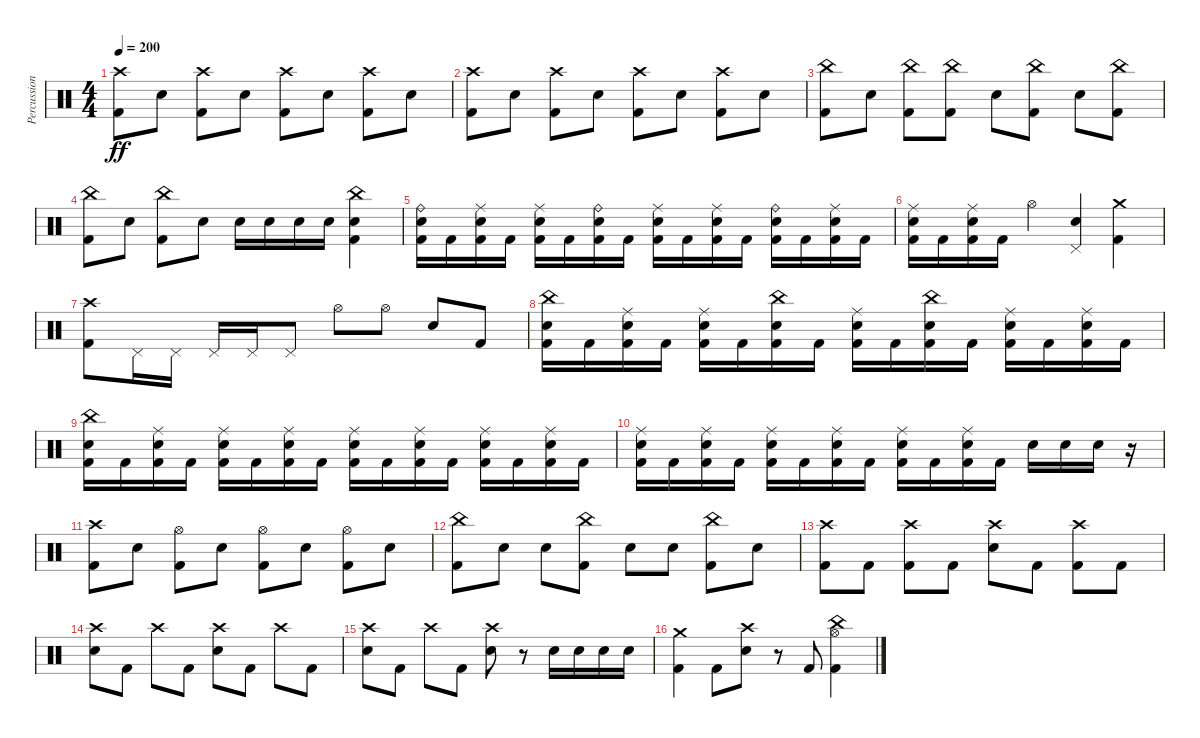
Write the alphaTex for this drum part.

\track ("Percussion" "Percussion") {instrument percussion}
\staff {score}
\articulation defaults
\ts (4 4)
\tempo 200
\clef neutral
\ks c
("Crash high (hit)" "Kick (hit) 2").8{dy ff} "Electric Snare (hit)".8 ("Crash high (hit)" "Kick (hit) 2").8 "Electric Snare (hit)".8 ("Crash high (hit)" "Kick (hit) 2").8 "Electric Snare (hit)".8 ("Crash high (hit)" "Kick (hit) 2").8 "Electric Snare (hit)".8 |
("Crash high (hit)" "Kick (hit) 2").8 "Electric Snare (hit)".8 ("Crash high (hit)" "Kick (hit) 2").8 "Electric Snare (hit)".8 ("Crash high (hit)" "Kick (hit) 2").8 "Electric Snare (hit)".8 ("Crash high (hit)" "Kick (hit) 2").8 "Electric Snare (hit)".8 |
("China (hit)" "Kick (hit) 2").8 "Electric Snare (hit)".8 ("China (hit)" "Kick (hit) 2").8 ("China (hit)" "Kick (hit) 2").8 "Electric Snare (hit)".8 ("China (hit)" "Kick (hit) 2").8 "Electric Snare (hit)".8 ("China (hit)" "Kick (hit) 2").8 |
("China (hit)" "Kick (hit) 2").8 "Electric Snare (hit)".8 ("China (hit)" "Kick (hit) 2").8 "Electric Snare (hit)".8 "Electric Snare (hit)".16 "Electric Snare (hit)".16 "Electric Snare (hit)".16 "Electric Snare (hit)".16 ("China (hit)" "Electric Snare (hit)" "Kick (hit) 2").4 |
("Ride (bell)" "Electric Snare (hit)" "Kick (hit) 2").16 "Kick (hit) 2".16 ("Ride (middle)" "Electric Snare (hit)" "Kick (hit) 2").16 "Kick (hit) 2".16 ("Ride (middle)" "Electric Snare (hit)" "Kick (hit) 2").16 "Kick (hit) 2".16 ("Ride (bell)" "Electric Snare (hit)" "Kick (hit) 2").16 "Kick (hit) 2".16 ("Ride (middle)" "Electric Snare (hit)" "Kick (hit) 2").16 "Kick (hit) 2".16 ("Ride (middle)" "Electric Snare (hit)" "Kick (hit) 2").16 "Kick (hit) 2".16 ("Ride (bell)" "Electric Snare (hit)" "Kick (hit) 2").16 "Kick (hit) 2".16 ("Ride (middle)" "Electric Snare (hit)" "Kick (hit) 2").16 "Kick (hit) 2".16 |
("Ride (middle)" "Electric Snare (hit)" "Kick (hit) 2").16 "Kick (hit) 2".16 ("Ride (middle)" "Electric Snare (hit)" "Kick (hit) 2").16 "Kick (hit) 2".16 "Hi-Hat (open)".4 ("Pedal Hi-Hat (hit)" "Electric Snare (hit)").4 ("Crash medium (hit)" "Kick (hit) 2").4 |
("Crash high (hit)" "Kick (hit) 2").8 "Pedal Hi-Hat (hit)".16 "Pedal Hi-Hat (hit)".16 "Pedal Hi-Hat (hit)".16 "Pedal Hi-Hat (hit)".16 "Pedal Hi-Hat (hit)".8 "Hi-Hat (open)".8 "Hi-Hat (open)".8 "Electric Snare (hit)".8 "Kick (hit) 2".8 |
("China (hit)" "Electric Snare (hit)" "Kick (hit) 2").16 "Kick (hit) 2".16 ("Ride (middle)" "Electric Snare (hit)" "Kick (hit) 2").16 "Kick (hit) 2".16 ("Ride (middle)" "Electric Snare (hit)" "Kick (hit) 2").16 "Kick (hit) 2".16 ("China (hit)" "Electric Snare (hit)" "Kick (hit) 2").16 "Kick (hit) 2".16 ("Ride (middle)" "Electric Snare (hit)" "Kick (hit) 2").16 "Kick (hit) 2".16 ("China (hit)" "Electric Snare (hit)" "Kick (hit) 2").16 "Kick (hit) 2".16 ("Ride (middle)" "Electric Snare (hit)" "Kick (hit) 2").16 "Kick (hit) 2".16 ("Ride (middle)" "Electric Snare (hit)" "Kick (hit) 2").16 "Kick (hit) 2".16 |
("China (hit)" "Electric Snare (hit)" "Kick (hit) 2").16 "Kick (hit) 2".16 ("Ride (middle)" "Electric Snare (hit)" "Kick (hit) 2").16 "Kick (hit) 2".16 ("Ride (middle)" "Electric Snare (hit)" "Kick (hit) 2").16 "Kick (hit) 2".16 ("Ride (middle)" "Electric Snare (hit)" "Kick (hit) 2").16 "Kick (hit) 2".16 ("Ride (middle)" "Electric Snare (hit)" "Kick (hit) 2").16 "Kick (hit) 2".16 ("Ride (middle)" "Electric Snare (hit)" "Kick (hit) 2").16 "Kick (hit) 2".16 ("Ride (middle)" "Electric Snare (hit)" "Kick (hit) 2").16 "Kick (hit) 2".16 ("Ride (middle)" "Electric Snare (hit)" "Kick (hit) 2").16 "Kick (hit) 2".16 |
("Ride (middle)" "Electric Snare (hit)" "Kick (hit) 2").16 "Kick (hit) 2".16 ("Ride (middle)" "Electric Snare (hit)" "Kick (hit) 2").16 "Kick (hit) 2".16 ("Ride (middle)" "Electric Snare (hit)" "Kick (hit) 2").16 "Kick (hit) 2".16 ("Ride (middle)" "Electric Snare (hit)" "Kick (hit) 2").16 "Kick (hit) 2".16 ("Ride (middle)" "Electric Snare (hit)" "Kick (hit) 2").16 "Kick (hit) 2".16 ("Ride (middle)" "Electric Snare (hit)" "Kick (hit) 2").16 "Kick (hit) 2".16 "Electric Snare (hit)".16 "Electric Snare (hit)".16 "Electric Snare (hit)".16 r.16 |
("Crash high (hit)" "Kick (hit) 2").8 "Electric Snare (hit)".8 ("Hi-Hat (open)" "Kick (hit) 2").8 "Electric Snare (hit)".8 ("Hi-Hat (open)" "Kick (hit) 2").8 "Electric Snare (hit)".8 ("Hi-Hat (open)" "Kick (hit) 2").8 "Electric Snare (hit)".8 |
("China (hit)" "Kick (hit) 2").8 "Electric Snare (hit)".8 "Electric Snare (hit)".8 ("China (hit)" "Kick (hit) 2").8 "Electric Snare (hit)".8 "Electric Snare (hit)".8 ("China (hit)" "Kick (hit) 2").8 "Electric Snare (hit)".8 |
("Crash high (hit)" "Kick (hit) 2").8 "Kick (hit) 2".8 ("Crash high (hit)" "Kick (hit) 2").8 "Kick (hit) 2".8 ("Crash high (hit)" "Electric Snare (hit)").8 "Kick (hit) 2".8 ("Crash high (hit)" "Kick (hit) 2").8 "Kick (hit) 2".8 |
("Crash high (hit)" "Electric Snare (hit)").8 "Kick (hit) 2".8 "Crash high (hit)".8 "Kick (hit) 2".8 ("Crash high (hit)" "Electric Snare (hit)").8 "Kick (hit) 2".8 "Crash high (hit)".8 "Kick (hit) 2".8 |
("Crash high (hit)" "Electric Snare (hit)").8 "Kick (hit) 2".8 "Crash high (hit)".8 "Kick (hit) 2".8 ("Crash high (hit)" "Electric Snare (hit)").8 r.8 "Electric Snare (hit)".16 "Electric Snare (hit)".16 "Electric Snare (hit)".16 "Electric Snare (hit)".16 |
("Crash medium (hit)" "Kick (hit) 2").4 "Kick (hit) 2".8 ("Crash high (hit)" "Electric Snare (hit)").8 r.8 "Kick (hit) 2".8 ("Hi-Hat (open)" "China (hit)" "Kick (hit) 2").4
